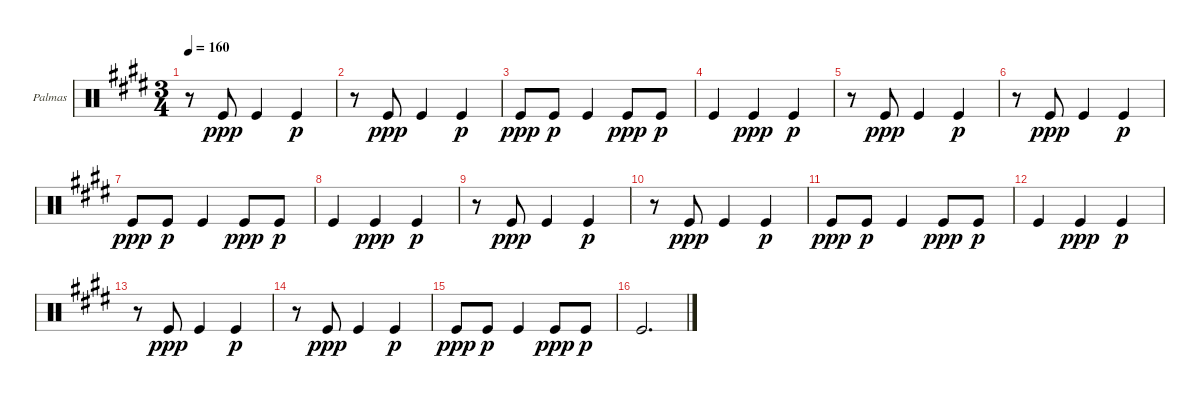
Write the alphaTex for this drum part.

\defaultSystemsLayout 4
\bracketExtendMode groupsimilarinstruments
\firstSystemTrackNameOrientation horizontal
\otherSystemsTrackNameOrientation horizontal
\track ("Palmas" "Palmas") {instrument percussion}
\staff {score}
\articulation defaults
\ts (3 4)
\tempo 160
\clef neutral
\ks e
r.8{dy p} "Kick (hit)".8{dy ppp} "Kick (hit)".4 "Kick (hit)".4{dy p} |
r.8 "Kick (hit)".8{dy ppp} "Kick (hit)".4 "Kick (hit)".4{dy p} |
"Kick (hit)".8{dy ppp} "Kick (hit)".8{dy p} "Kick (hit)".4 "Kick (hit)".8{dy ppp} "Kick (hit)".8{dy p} |
"Kick (hit)".4 "Kick (hit)".4{dy ppp} "Kick (hit)".4{dy p} |
r.8 "Kick (hit)".8{dy ppp} "Kick (hit)".4 "Kick (hit)".4{dy p} |
r.8 "Kick (hit)".8{dy ppp} "Kick (hit)".4 "Kick (hit)".4{dy p} |
"Kick (hit)".8{dy ppp} "Kick (hit)".8{dy p} "Kick (hit)".4 "Kick (hit)".8{dy ppp} "Kick (hit)".8{dy p} |
"Kick (hit)".4 "Kick (hit)".4{dy ppp} "Kick (hit)".4{dy p} |
r.8 "Kick (hit)".8{dy ppp} "Kick (hit)".4 "Kick (hit)".4{dy p} |
r.8 "Kick (hit)".8{dy ppp} "Kick (hit)".4 "Kick (hit)".4{dy p} |
"Kick (hit)".8{dy ppp} "Kick (hit)".8{dy p} "Kick (hit)".4 "Kick (hit)".8{dy ppp} "Kick (hit)".8{dy p} |
"Kick (hit)".4 "Kick (hit)".4{dy ppp} "Kick (hit)".4{dy p} |
r.8 "Kick (hit)".8{dy ppp} "Kick (hit)".4 "Kick (hit)".4{dy p} |
r.8 "Kick (hit)".8{dy ppp} "Kick (hit)".4 "Kick (hit)".4{dy p} |
"Kick (hit)".8{dy ppp} "Kick (hit)".8{dy p} "Kick (hit)".4 "Kick (hit)".8{dy ppp} "Kick (hit)".8{dy p} |
"Kick (hit)".2{d}
